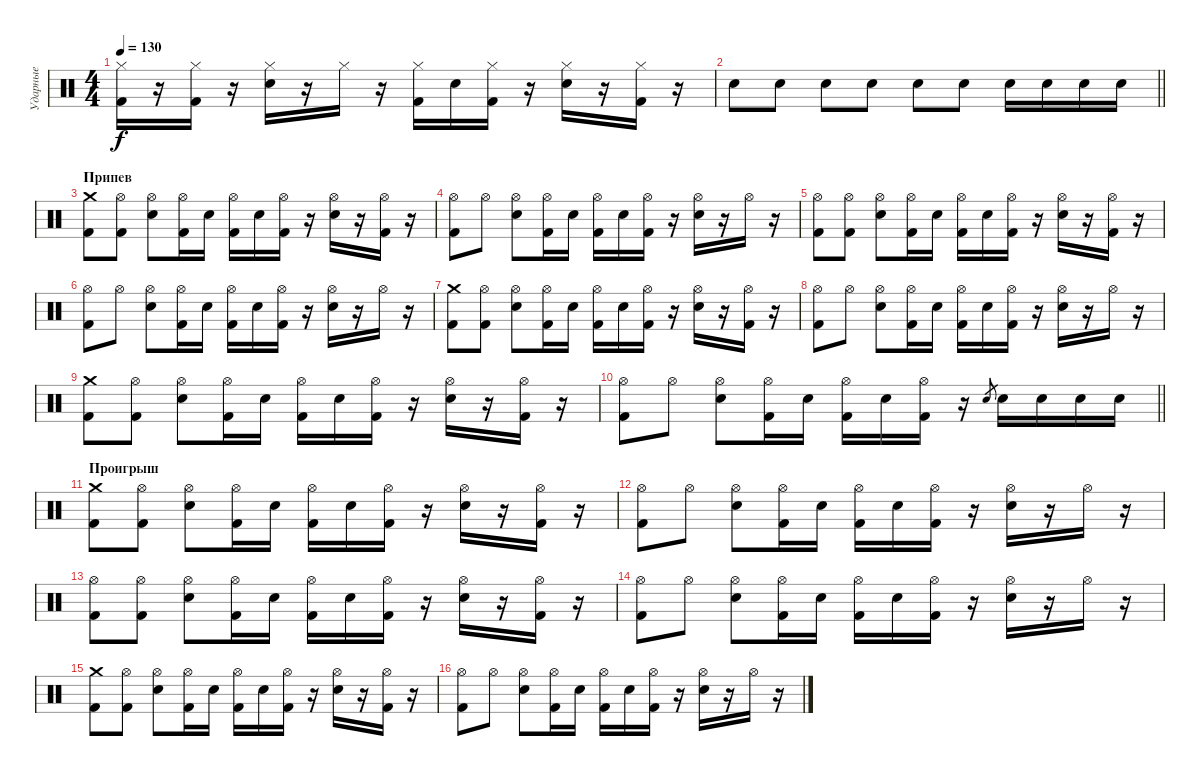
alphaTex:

\track ("Ударные" "Ударные") {instrument percussion}
\staff {score}
\articulation defaults
\ts (4 4)
\tempo 130
\clef neutral
\ks c
("Kick (hit) 2" "Hi-Hat (closed)").16{dy f} r.16 ("Kick (hit) 2" "Hi-Hat (closed)").16 r.16 ("Hi-Hat (closed)" "Electric Snare (hit)").16 r.16 "Hi-Hat (closed)".16 r.16 ("Hi-Hat (closed)" "Kick (hit) 2").16 "Electric Snare (hit)".16 ("Hi-Hat (closed)" "Kick (hit) 2").16 r.16 ("Hi-Hat (closed)" "Electric Snare (hit)").16 r.16 ("Hi-Hat (closed)" "Kick (hit) 2").16 r.16 |
\barLineRight lightlight "Electric Snare (hit)".8 "Electric Snare (hit)".8 "Electric Snare (hit)".8 "Electric Snare (hit)".8 "Electric Snare (hit)".8 "Electric Snare (hit)".8 "Electric Snare (hit)".16 "Electric Snare (hit)".16 "Electric Snare (hit)".16 "Electric Snare (hit)".16
|
\section ("" "Припев")
("Kick (hit) 2" "Crash medium (hit)").8 ("Kick (hit) 2" "Hi-Hat (open)").8 ("Electric Snare (hit)" "Hi-Hat (open)").8 ("Kick (hit) 2" "Hi-Hat (open)").16 "Electric Snare (hit)".16 ("Hi-Hat (open)" "Kick (hit) 2").16 "Electric Snare (hit)".16 ("Hi-Hat (open)" "Kick (hit) 2").16 r.16 ("Electric Snare (hit)" "Hi-Hat (open)").16 r.16 ("Kick (hit) 2" "Hi-Hat (open)").16 r.16 |
("Kick (hit) 2" "Hi-Hat (open)").8 "Hi-Hat (open)".8 ("Electric Snare (hit)" "Hi-Hat (open)").8 ("Kick (hit) 2" "Hi-Hat (open)").16 "Electric Snare (hit)".16 ("Hi-Hat (open)" "Kick (hit) 2").16 "Electric Snare (hit)".16 ("Hi-Hat (open)" "Kick (hit) 2").16 r.16 ("Electric Snare (hit)" "Hi-Hat (open)").16 r.16 "Hi-Hat (open)".16 r.16 |
("Kick (hit) 2" "Hi-Hat (open)").8 ("Kick (hit) 2" "Hi-Hat (open)").8 ("Electric Snare (hit)" "Hi-Hat (open)").8 ("Kick (hit) 2" "Hi-Hat (open)").16 "Electric Snare (hit)".16 ("Hi-Hat (open)" "Kick (hit) 2").16 "Electric Snare (hit)".16 ("Hi-Hat (open)" "Kick (hit) 2").16 r.16 ("Electric Snare (hit)" "Hi-Hat (open)").16 r.16 ("Kick (hit) 2" "Hi-Hat (open)").16 r.16 |
("Kick (hit) 2" "Hi-Hat (open)").8 "Hi-Hat (open)".8 ("Electric Snare (hit)" "Hi-Hat (open)").8 ("Kick (hit) 2" "Hi-Hat (open)").16 "Electric Snare (hit)".16 ("Hi-Hat (open)" "Kick (hit) 2").16 "Electric Snare (hit)".16 ("Hi-Hat (open)" "Kick (hit) 2").16 r.16 ("Electric Snare (hit)" "Hi-Hat (open)").16 r.16 "Hi-Hat (open)".16 r.16 |
("Kick (hit) 2" "Crash medium (hit)").8 ("Kick (hit) 2" "Hi-Hat (open)").8 ("Electric Snare (hit)" "Hi-Hat (open)").8 ("Kick (hit) 2" "Hi-Hat (open)").16 "Electric Snare (hit)".16 ("Hi-Hat (open)" "Kick (hit) 2").16 "Electric Snare (hit)".16 ("Hi-Hat (open)" "Kick (hit) 2").16 r.16 ("Electric Snare (hit)" "Hi-Hat (open)").16 r.16 ("Kick (hit) 2" "Hi-Hat (open)").16 r.16 |
("Kick (hit) 2" "Hi-Hat (open)").8 "Hi-Hat (open)".8 ("Electric Snare (hit)" "Hi-Hat (open)").8 ("Kick (hit) 2" "Hi-Hat (open)").16 "Electric Snare (hit)".16 ("Hi-Hat (open)" "Kick (hit) 2").16 "Electric Snare (hit)".16 ("Hi-Hat (open)" "Kick (hit) 2").16 r.16 ("Electric Snare (hit)" "Hi-Hat (open)").16 r.16 "Hi-Hat (open)".16 r.16 |
("Kick (hit) 2" "Crash medium (hit)").8 ("Kick (hit) 2" "Hi-Hat (open)").8 ("Electric Snare (hit)" "Hi-Hat (open)").8 ("Kick (hit) 2" "Hi-Hat (open)").16 "Electric Snare (hit)".16 ("Hi-Hat (open)" "Kick (hit) 2").16 "Electric Snare (hit)".16 ("Hi-Hat (open)" "Kick (hit) 2").16 r.16 ("Electric Snare (hit)" "Hi-Hat (open)").16 r.16 ("Kick (hit) 2" "Hi-Hat (open)").16 r.16 |
\barLineRight lightlight
("Kick (hit) 2" "Hi-Hat (open)").8 "Hi-Hat (open)".8 ("Electric Snare (hit)" "Hi-Hat (open)").8 ("Kick (hit) 2" "Hi-Hat (open)").16 "Electric Snare (hit)".16 ("Hi-Hat (open)" "Kick (hit) 2").16 "Electric Snare (hit)".16 ("Hi-Hat (open)" "Kick (hit) 2").16 r.16 "Electric Snare (hit)".8{gr} "Electric Snare (hit)".16 "Electric Snare (hit)".16 "Electric Snare (hit)".16 "Electric Snare (hit)".16 |
\section ("" "Проигрыш")
("Kick (hit) 2" "Crash medium (hit)").8 ("Kick (hit) 2" "Hi-Hat (open)").8 ("Electric Snare (hit)" "Hi-Hat (open)").8 ("Kick (hit) 2" "Hi-Hat (open)").16 "Electric Snare (hit)".16 ("Hi-Hat (open)" "Kick (hit) 2").16 "Electric Snare (hit)".16 ("Hi-Hat (open)" "Kick (hit) 2").16 r.16 ("Electric Snare (hit)" "Hi-Hat (open)").16 r.16 ("Kick (hit) 2" "Hi-Hat (open)").16 r.16 |
("Kick (hit) 2" "Hi-Hat (open)").8 "Hi-Hat (open)".8 ("Electric Snare (hit)" "Hi-Hat (open)").8 ("Kick (hit) 2" "Hi-Hat (open)").16 "Electric Snare (hit)".16 ("Hi-Hat (open)" "Kick (hit) 2").16 "Electric Snare (hit)".16 ("Hi-Hat (open)" "Kick (hit) 2").16 r.16 ("Electric Snare (hit)" "Hi-Hat (open)").16 r.16 "Hi-Hat (open)".16 r.16 |
("Kick (hit) 2" "Hi-Hat (open)").8 ("Kick (hit) 2" "Hi-Hat (open)").8 ("Electric Snare (hit)" "Hi-Hat (open)").8 ("Kick (hit) 2" "Hi-Hat (open)").16 "Electric Snare (hit)".16 ("Hi-Hat (open)" "Kick (hit) 2").16 "Electric Snare (hit)".16 ("Hi-Hat (open)" "Kick (hit) 2").16 r.16 ("Electric Snare (hit)" "Hi-Hat (open)").16 r.16 ("Kick (hit) 2" "Hi-Hat (open)").16 r.16 |
("Kick (hit) 2" "Hi-Hat (open)").8 "Hi-Hat (open)".8 ("Electric Snare (hit)" "Hi-Hat (open)").8 ("Kick (hit) 2" "Hi-Hat (open)").16 "Electric Snare (hit)".16 ("Hi-Hat (open)" "Kick (hit) 2").16 "Electric Snare (hit)".16 ("Hi-Hat (open)" "Kick (hit) 2").16 r.16 ("Electric Snare (hit)" "Hi-Hat (open)").16 r.16 "Hi-Hat (open)".16 r.16 |
("Kick (hit) 2" "Crash medium (hit)").8 ("Kick (hit) 2" "Hi-Hat (open)").8 ("Electric Snare (hit)" "Hi-Hat (open)").8 ("Kick (hit) 2" "Hi-Hat (open)").16 "Electric Snare (hit)".16 ("Hi-Hat (open)" "Kick (hit) 2").16 "Electric Snare (hit)".16 ("Hi-Hat (open)" "Kick (hit) 2").16 r.16 ("Electric Snare (hit)" "Hi-Hat (open)").16 r.16 ("Kick (hit) 2" "Hi-Hat (open)").16 r.16 |
("Kick (hit) 2" "Hi-Hat (open)").8 "Hi-Hat (open)".8 ("Electric Snare (hit)" "Hi-Hat (open)").8 ("Kick (hit) 2" "Hi-Hat (open)").16 "Electric Snare (hit)".16 ("Hi-Hat (open)" "Kick (hit) 2").16 "Electric Snare (hit)".16 ("Hi-Hat (open)" "Kick (hit) 2").16 r.16 ("Electric Snare (hit)" "Hi-Hat (open)").16 r.16 "Hi-Hat (open)".16 r.16
